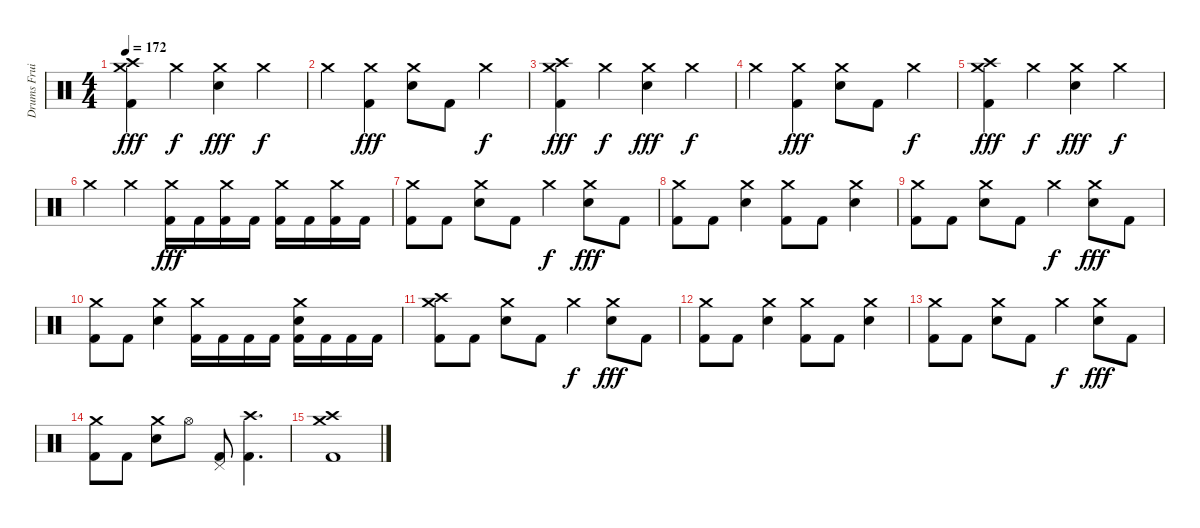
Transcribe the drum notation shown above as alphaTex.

\track ("Drums Fruity Lexia" "Drums Frui") {instrument percussion}
\staff {score}
\articulation defaults
\ts (4 4)
\tempo 172
\clef neutral
\ks c
("Crash high (hit)" "Crash medium (hit)" "Kick (hit) 2").4{dy fff} "Crash medium (hit)".4{dy f} ("Crash medium (hit)" "Electric Snare (hit)").4{dy fff} "Crash medium (hit)".4{dy f} |
"Crash medium (hit)".4 ("Crash medium (hit)" "Kick (hit) 2").4{dy fff} ("Crash medium (hit)" "Electric Snare (hit)").8 "Kick (hit) 2".8 "Crash medium (hit)".4{dy f} |
("Crash high (hit)" "Crash medium (hit)" "Kick (hit) 2").4{dy fff} "Crash medium (hit)".4{dy f} ("Crash medium (hit)" "Electric Snare (hit)").4{dy fff} "Crash medium (hit)".4{dy f} |
"Crash medium (hit)".4 ("Crash medium (hit)" "Kick (hit) 2").4{dy fff} ("Crash medium (hit)" "Electric Snare (hit)").8 "Kick (hit) 2".8 "Crash medium (hit)".4{dy f} |
("Crash high (hit)" "Crash medium (hit)" "Kick (hit) 2").4{dy fff} "Crash medium (hit)".4{dy f} ("Crash medium (hit)" "Electric Snare (hit)").4{dy fff} "Crash medium (hit)".4{dy f} |
"Crash medium (hit)".4 "Crash medium (hit)".4 ("Crash medium (hit)" "Kick (hit) 2").16{dy fff} "Kick (hit) 2".16 ("Crash medium (hit)" "Kick (hit) 2").16 "Kick (hit) 2".16 ("Crash medium (hit)" "Kick (hit) 2").16 "Kick (hit) 2".16 ("Crash medium (hit)" "Kick (hit) 2").16 "Kick (hit) 2".16 |
("Crash medium (hit)" "Kick (hit) 2").8 "Kick (hit) 2".8 ("Crash medium (hit)" "Electric Snare (hit)").8 "Kick (hit) 2".8 "Crash medium (hit)".4{dy f} ("Crash medium (hit)" "Electric Snare (hit)").8{dy fff} "Kick (hit) 2".8 |
("Crash medium (hit)" "Kick (hit) 2").8 "Kick (hit) 2".8 ("Crash medium (hit)" "Electric Snare (hit)").4 ("Crash medium (hit)" "Kick (hit) 2").8 "Kick (hit) 2".8 ("Crash medium (hit)" "Electric Snare (hit)").4 |
("Crash medium (hit)" "Kick (hit) 2").8 "Kick (hit) 2".8 ("Crash medium (hit)" "Electric Snare (hit)").8 "Kick (hit) 2".8 "Crash medium (hit)".4{dy f} ("Crash medium (hit)" "Electric Snare (hit)").8{dy fff} "Kick (hit) 2".8 |
("Crash medium (hit)" "Kick (hit) 2").8 "Kick (hit) 2".8 ("Crash medium (hit)" "Electric Snare (hit)").4 ("Crash medium (hit)" "Kick (hit) 2").16 "Kick (hit) 2".16 "Kick (hit) 2".16 "Kick (hit) 2".16 ("Crash medium (hit)" "Electric Snare (hit)" "Kick (hit) 2").16 "Kick (hit) 2".16 "Kick (hit) 2".16 "Kick (hit) 2".16 |
("Crash high (hit)" "Crash medium (hit)" "Kick (hit) 2").8 "Kick (hit) 2".8 ("Crash medium (hit)" "Electric Snare (hit)").8 "Kick (hit) 2".8 "Crash medium (hit)".4{dy f} ("Crash medium (hit)" "Electric Snare (hit)").8{dy fff} "Kick (hit) 2".8 |
("Crash medium (hit)" "Kick (hit) 2").8 "Kick (hit) 2".8 ("Crash medium (hit)" "Electric Snare (hit)").4 ("Crash medium (hit)" "Kick (hit) 2").8 "Kick (hit) 2".8 ("Crash medium (hit)" "Electric Snare (hit)").4 |
("Crash medium (hit)" "Kick (hit) 2").8 "Kick (hit) 2".8 ("Crash medium (hit)" "Electric Snare (hit)").8 "Kick (hit) 2".8 "Crash medium (hit)".4{dy f} ("Crash medium (hit)" "Electric Snare (hit)").8{dy fff} "Kick (hit) 2".8 |
("Crash medium (hit)" "Kick (hit) 2").8 "Kick (hit) 2".8 ("Crash medium (hit)" "Electric Snare (hit)").8 "Hi-Hat (open)".8 ("Pedal Hi-Hat (hit)" "Kick (hit) 2").8 ("Crash high (hit)" "Kick (hit) 2").4{d} |
("Crash high (hit)" "Crash medium (hit)" "Kick (hit) 2").1
